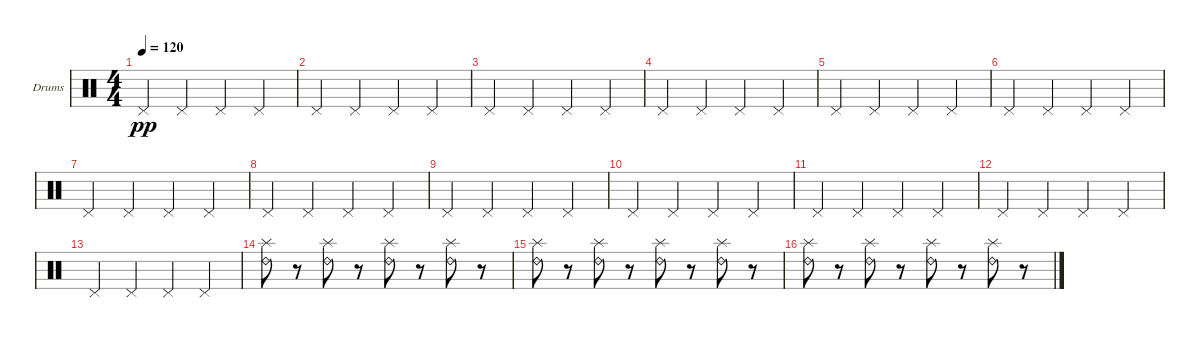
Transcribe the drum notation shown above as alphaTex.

\defaultSystemsLayout 4
\bracketExtendMode groupsimilarinstruments
\firstSystemTrackNameOrientation horizontal
\otherSystemsTrackNameOrientation horizontal
\track ("Drumkit" "Drums") {instrument percussion}
\staff {score}
\articulation defaults
\ts (4 4)
\tempo 120
\clef neutral
\scale
0.333333
\ks c "Pedal Hi-Hat (hit)".4{dy pp} "Pedal Hi-Hat (hit)".4 "Pedal Hi-Hat (hit)".4 "Pedal Hi-Hat (hit)".4
|
\scale
0.333333 "Pedal Hi-Hat (hit)".4 "Pedal Hi-Hat (hit)".4 "Pedal Hi-Hat (hit)".4 "Pedal Hi-Hat (hit)".4 |
\scale
0.333333 "Pedal Hi-Hat (hit)".4 "Pedal Hi-Hat (hit)".4 "Pedal Hi-Hat (hit)".4 "Pedal Hi-Hat (hit)".4 |
\scale
0.333333 "Pedal Hi-Hat (hit)".4 "Pedal Hi-Hat (hit)".4 "Pedal Hi-Hat (hit)".4 "Pedal Hi-Hat (hit)".4 |
\scale
0.333333 "Pedal Hi-Hat (hit)".4 "Pedal Hi-Hat (hit)".4 "Pedal Hi-Hat (hit)".4 "Pedal Hi-Hat (hit)".4 |
\scale
0.333333 "Pedal Hi-Hat (hit)".4 "Pedal Hi-Hat (hit)".4 "Pedal Hi-Hat (hit)".4 "Pedal Hi-Hat (hit)".4 |
\scale
0.333333 "Pedal Hi-Hat (hit)".4 "Pedal Hi-Hat (hit)".4 "Pedal Hi-Hat (hit)".4 "Pedal Hi-Hat (hit)".4 |
\scale
0.333333 "Pedal Hi-Hat (hit)".4 "Pedal Hi-Hat (hit)".4 "Pedal Hi-Hat (hit)".4 "Pedal Hi-Hat (hit)".4 |
\scale
0.333333 "Pedal Hi-Hat (hit)".4 "Pedal Hi-Hat (hit)".4 "Pedal Hi-Hat (hit)".4 "Pedal Hi-Hat (hit)".4 |
\scale
0.333333 "Pedal Hi-Hat (hit)".4 "Pedal Hi-Hat (hit)".4 "Pedal Hi-Hat (hit)".4 "Pedal Hi-Hat (hit)".4 |
\scale
0.333333 "Pedal Hi-Hat (hit)".4 "Pedal Hi-Hat (hit)".4 "Pedal Hi-Hat (hit)".4 "Pedal Hi-Hat (hit)".4 |
\scale
0.333333 "Pedal Hi-Hat (hit)".4 "Pedal Hi-Hat (hit)".4 "Pedal Hi-Hat (hit)".4 "Pedal Hi-Hat (hit)".4 |
\scale
0.333333 "Pedal Hi-Hat (hit)".4 "Pedal Hi-Hat (hit)".4 "Pedal Hi-Hat (hit)".4 "Pedal Hi-Hat (hit)".4 |
\scale
0.333333 ("Ride (bell) 2" "Splash (hit)").8 r.8 ("Ride (bell) 2" "Splash (hit)").8 r.8 ("Ride (bell) 2" "Splash (hit)").8 r.8 ("Ride (bell) 2" "Splash (hit)").8 r.8 |
\scale
0.333333 ("Ride (bell) 2" "Splash (hit)").8 r.8 ("Ride (bell) 2" "Splash (hit)").8 r.8 ("Ride (bell) 2" "Splash (hit)").8 r.8 ("Ride (bell) 2" "Splash (hit)").8 r.8 |
\scale
0.333333 ("Ride (bell) 2" "Splash (hit)").8 r.8 ("Ride (bell) 2" "Splash (hit)").8 r.8 ("Ride (bell) 2" "Splash (hit)").8 r.8 ("Ride (bell) 2" "Splash (hit)").8 r.8
